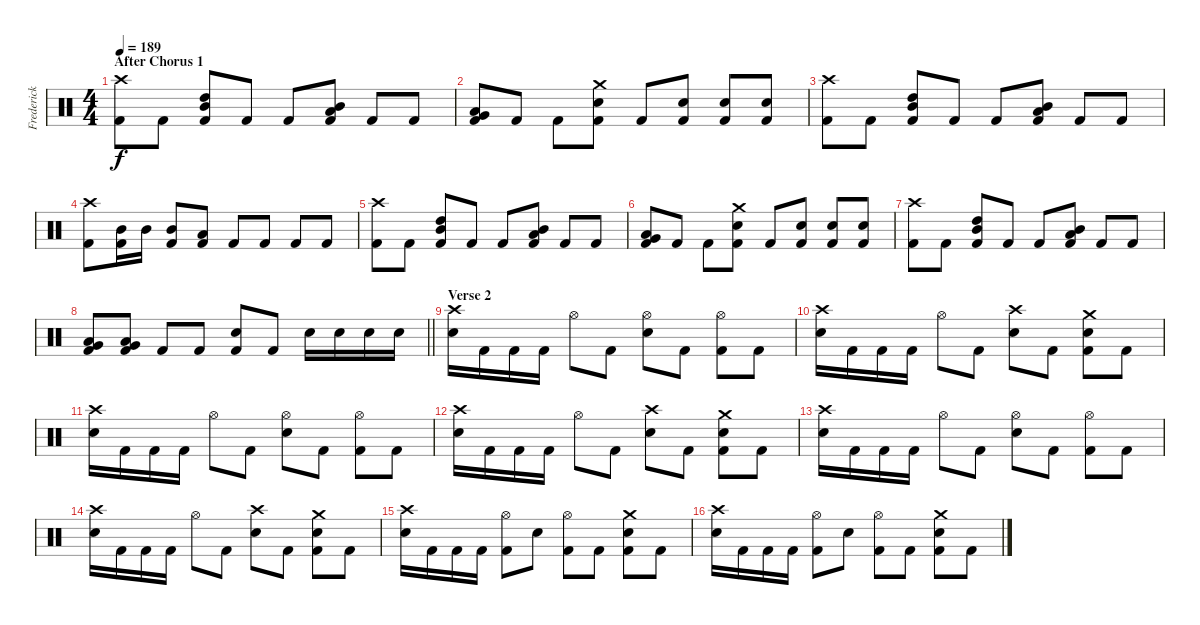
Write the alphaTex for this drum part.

\track ("Frederick Ehmke" "Frederick ") {instrument percussion}
\staff {score}
\articulation defaults
\ts (4 4)
\section ("" "After Chorus 1")
\tempo 189
\clef neutral
\ks c
("Kick (hit) 2" "Crash high (hit)").8{dy f} "Kick (hit) 2".8 ("Kick (hit) 2" "Mid Tom (hit)" "High Tom (hit)").8 "Kick (hit) 2".8 "Kick (hit) 2".8 ("Kick (hit) 2" "Low Tom (hit)" "Mid Tom (hit)").8 "Kick (hit) 2".8 "Kick (hit) 2".8 |
("Kick (hit) 2" "Low Tom (hit)" "Very Low Tom (hit)").8 "Kick (hit) 2".8 "Kick (hit) 2".8 ("Electric Snare (hit)" "Kick (hit) 2" "Crash medium (hit)").8 "Kick (hit) 2".8 ("Electric Snare (hit)" "Kick (hit) 2").8 ("Electric Snare (hit)" "Kick (hit) 2").8 ("Electric Snare (hit)" "Kick (hit) 2").8 |
("Kick (hit) 2" "Crash high (hit)").8 "Kick (hit) 2".8 ("Kick (hit) 2" "Mid Tom (hit)" "High Tom (hit)").8 "Kick (hit) 2".8 "Kick (hit) 2".8 ("Kick (hit) 2" "Low Tom (hit)" "Mid Tom (hit)").8 "Kick (hit) 2".8 "Kick (hit) 2".8 |
("Kick (hit) 2" "Crash high (hit)").8 ("Kick (hit) 2" "Mid Tom (hit)").16 "Mid Tom (hit)".16 ("Kick (hit) 2" "Mid Tom (hit)").8 ("Kick (hit) 2" "Low Tom (hit)").8 "Kick (hit) 2".8 "Kick (hit) 2".8 "Kick (hit) 2".8 "Kick (hit) 2".8 |
("Kick (hit) 2" "Crash high (hit)").8 "Kick (hit) 2".8 ("Kick (hit) 2" "Mid Tom (hit)" "High Tom (hit)").8 "Kick (hit) 2".8 "Kick (hit) 2".8 ("Kick (hit) 2" "Low Tom (hit)" "Mid Tom (hit)").8 "Kick (hit) 2".8 "Kick (hit) 2".8 |
("Kick (hit) 2" "Low Tom (hit)" "Very Low Tom (hit)").8 "Kick (hit) 2".8 "Kick (hit) 2".8 ("Electric Snare (hit)" "Kick (hit) 2" "Crash medium (hit)").8 "Kick (hit) 2".8 ("Electric Snare (hit)" "Kick (hit) 2").8 ("Electric Snare (hit)" "Kick (hit) 2").8 ("Electric Snare (hit)" "Kick (hit) 2").8 |
("Kick (hit) 2" "Crash high (hit)").8 "Kick (hit) 2".8 ("Kick (hit) 2" "Mid Tom (hit)" "High Tom (hit)").8 "Kick (hit) 2".8 "Kick (hit) 2".8 ("Kick (hit) 2" "Low Tom (hit)" "Mid Tom (hit)").8 "Kick (hit) 2".8 "Kick (hit) 2".8 |
\barLineRight lightlight
("Kick (hit) 2" "Low Tom (hit)" "Very Low Tom (hit)").8 ("Kick (hit) 2" "Low Tom (hit)" "Very Low Tom (hit)").8 "Kick (hit) 2".8 "Kick (hit) 2".8 ("Electric Snare (hit)" "Kick (hit) 2").8 "Kick (hit) 2".8 "Electric Snare (hit)".16 "Electric Snare (hit)".16 "Electric Snare (hit)".16 "Electric Snare (hit)".16 |
\section ("" "Verse 2")
("Electric Snare (hit)" "Crash high (hit)").16 "Kick (hit) 2".16 "Kick (hit) 2".16 "Kick (hit) 2".16 "Hi-Hat (open)".8 "Kick (hit) 2".8 ("Electric Snare (hit)" "Hi-Hat (open)").8 "Kick (hit) 2".8 ("Kick (hit) 2" "Hi-Hat (open)").8 "Kick (hit) 2".8 |
("Electric Snare (hit)" "Crash high (hit)").16 "Kick (hit) 2".16 "Kick (hit) 2".16 "Kick (hit) 2".16 "Hi-Hat (open)".8 "Kick (hit) 2".8 ("Electric Snare (hit)" "Crash high (hit)").8 "Kick (hit) 2".8 ("Electric Snare (hit)" "Kick (hit) 2" "Crash medium (hit)").8 "Kick (hit) 2".8 |
("Electric Snare (hit)" "Crash high (hit)").16 "Kick (hit) 2".16 "Kick (hit) 2".16 "Kick (hit) 2".16 "Hi-Hat (open)".8 "Kick (hit) 2".8 ("Electric Snare (hit)" "Hi-Hat (open)").8 "Kick (hit) 2".8 ("Kick (hit) 2" "Hi-Hat (open)").8 "Kick (hit) 2".8 |
("Electric Snare (hit)" "Crash high (hit)").16 "Kick (hit) 2".16 "Kick (hit) 2".16 "Kick (hit) 2".16 "Hi-Hat (open)".8 "Kick (hit) 2".8 ("Electric Snare (hit)" "Crash high (hit)").8 "Kick (hit) 2".8 ("Electric Snare (hit)" "Kick (hit) 2" "Crash medium (hit)").8 "Kick (hit) 2".8 |
("Electric Snare (hit)" "Crash high (hit)").16 "Kick (hit) 2".16 "Kick (hit) 2".16 "Kick (hit) 2".16 "Hi-Hat (open)".8 "Kick (hit) 2".8 ("Electric Snare (hit)" "Hi-Hat (open)").8 "Kick (hit) 2".8 ("Kick (hit) 2" "Hi-Hat (open)").8 "Kick (hit) 2".8 |
("Electric Snare (hit)" "Crash high (hit)").16 "Kick (hit) 2".16 "Kick (hit) 2".16 "Kick (hit) 2".16 "Hi-Hat (open)".8 "Kick (hit) 2".8 ("Electric Snare (hit)" "Crash high (hit)").8 "Kick (hit) 2".8 ("Electric Snare (hit)" "Kick (hit) 2" "Crash medium (hit)").8 "Kick (hit) 2".8 |
("Electric Snare (hit)" "Crash high (hit)").16 "Kick (hit) 2".16 "Kick (hit) 2".16 "Kick (hit) 2".16 ("Kick (hit) 2" "Hi-Hat (open)").8 "Electric Snare (hit)".8 ("Kick (hit) 2" "Hi-Hat (open)").8 "Kick (hit) 2".8 ("Electric Snare (hit)" "Kick (hit) 2" "Crash medium (hit)").8 "Kick (hit) 2".8 |
("Electric Snare (hit)" "Crash high (hit)").16 "Kick (hit) 2".16 "Kick (hit) 2".16 "Kick (hit) 2".16 ("Kick (hit) 2" "Hi-Hat (open)").8 "Electric Snare (hit)".8 ("Kick (hit) 2" "Hi-Hat (open)").8 "Kick (hit) 2".8 ("Electric Snare (hit)" "Kick (hit) 2" "Crash medium (hit)").8 "Kick (hit) 2".8
